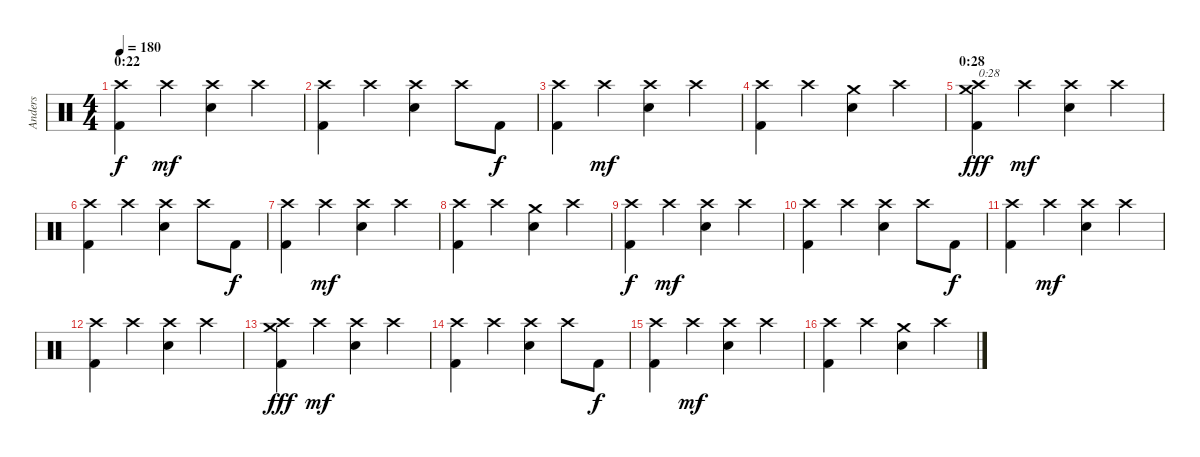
\track ("Anders" "Anders") {instrument percussion}
\staff {score}
\articulation defaults
\ts (4 4)
\section ("" "0:22")
\tempo 180
\clef neutral
\ks c
("Kick (hit) 2" "Crash high (hit)").4{dy f} "Crash high (hit)".4{dy mf} ("Electric Snare (hit)" "Crash high (hit)").4 "Crash high (hit)".4 |
("Kick (hit) 2" "Crash high (hit)").4 "Crash high (hit)".4 ("Electric Snare (hit)" "Crash high (hit)").4 "Crash high (hit)".8 "Kick (hit) 2".8{dy f} |
("Kick (hit) 2" "Crash high (hit)").4 "Crash high (hit)".4{dy mf} ("Electric Snare (hit)" "Crash high (hit)").4 "Crash high (hit)".4 |
("Kick (hit) 2" "Crash high (hit)").4 "Crash high (hit)".4 ("Electric Snare (hit)" "Crash medium (hit)").4 "Crash high (hit)".4 |
\section ("" "0:28")
("Kick (hit) 2" "Crash high (hit)" "Crash medium (hit)").4{txt "0:28" dy fff} "Crash high (hit)".4{dy mf} ("Electric Snare (hit)" "Crash high (hit)").4 "Crash high (hit)".4 |
("Kick (hit) 2" "Crash high (hit)").4 "Crash high (hit)".4 ("Electric Snare (hit)" "Crash high (hit)").4 "Crash high (hit)".8 "Kick (hit) 2".8{dy f} |
("Kick (hit) 2" "Crash high (hit)").4 "Crash high (hit)".4{dy mf} ("Electric Snare (hit)" "Crash high (hit)").4 "Crash high (hit)".4 |
("Kick (hit) 2" "Crash high (hit)").4 "Crash high (hit)".4 ("Electric Snare (hit)" "Crash medium (hit)").4 "Crash high (hit)".4 |
("Kick (hit) 2" "Crash high (hit)").4{dy f} "Crash high (hit)".4{dy mf} ("Electric Snare (hit)" "Crash high (hit)").4 "Crash high (hit)".4 |
("Kick (hit) 2" "Crash high (hit)").4 "Crash high (hit)".4 ("Electric Snare (hit)" "Crash high (hit)").4 "Crash high (hit)".8 "Kick (hit) 2".8{dy f} |
("Kick (hit) 2" "Crash high (hit)").4 "Crash high (hit)".4{dy mf} ("Electric Snare (hit)" "Crash high (hit)").4 "Crash high (hit)".4 |
("Kick (hit) 2" "Crash high (hit)").4 "Crash high (hit)".4 ("Electric Snare (hit)" "Crash high (hit)").4 "Crash high (hit)".4 |
("Kick (hit) 2" "Crash high (hit)" "Crash medium (hit)").4{dy fff} "Crash high (hit)".4{dy mf} ("Electric Snare (hit)" "Crash high (hit)").4 "Crash high (hit)".4 |
("Kick (hit) 2" "Crash high (hit)").4 "Crash high (hit)".4 ("Electric Snare (hit)" "Crash high (hit)").4 "Crash high (hit)".8 "Kick (hit) 2".8{dy f} |
("Kick (hit) 2" "Crash high (hit)").4 "Crash high (hit)".4{dy mf} ("Electric Snare (hit)" "Crash high (hit)").4 "Crash high (hit)".4 |
("Kick (hit) 2" "Crash high (hit)").4 "Crash high (hit)".4 ("Electric Snare (hit)" "Crash medium (hit)").4 "Crash high (hit)".4
